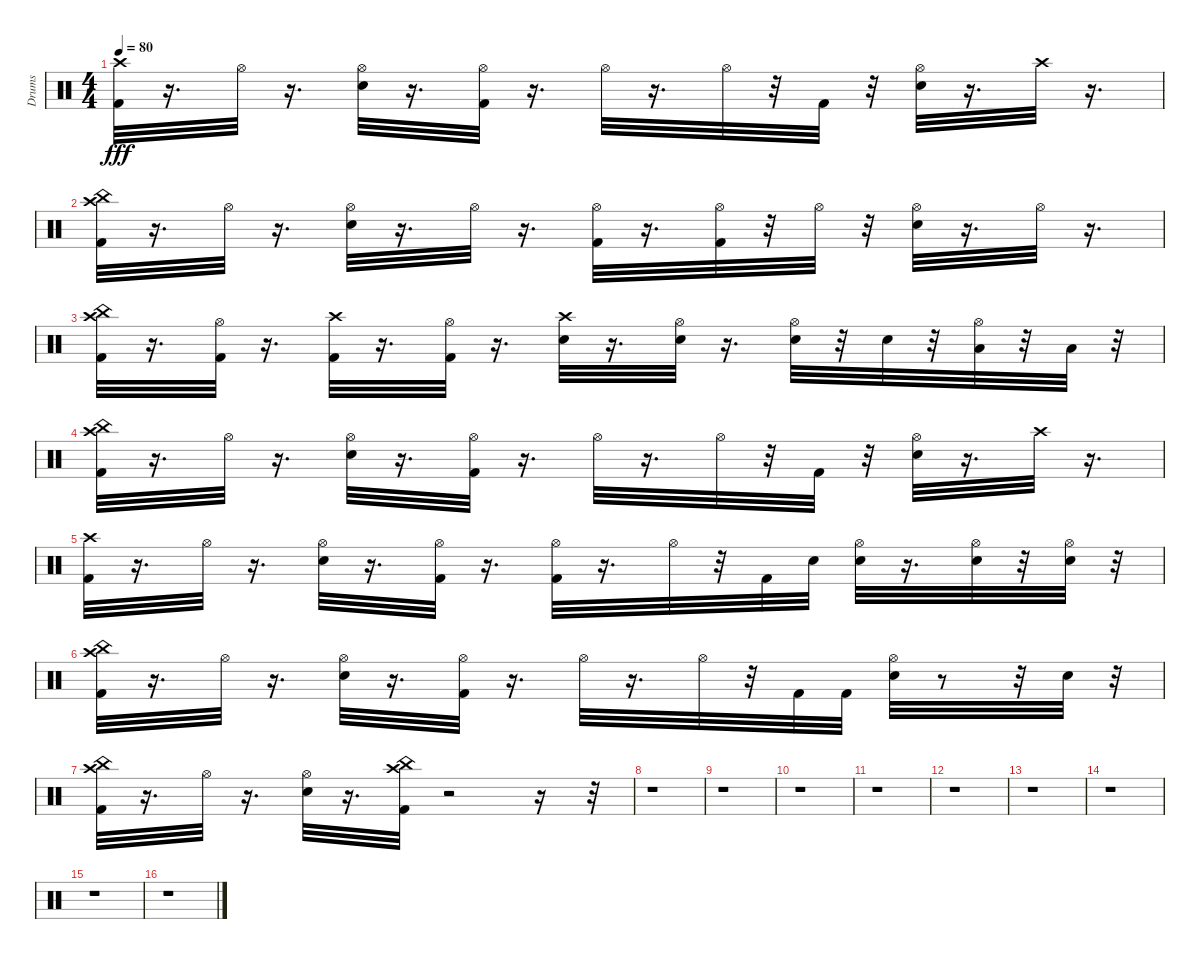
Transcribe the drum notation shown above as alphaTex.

\track ("Drums" "Drums") {instrument percussion}
\staff {score}
\articulation defaults
\ts (4 4)
\tempo 80
\clef neutral
\ks c
("Crash high (hit)" "Kick (hit) 2").32{dy fff} r.16{d} "Hi-Hat (open)".32 r.16{d} ("Hi-Hat (open)" "Snare (hit) 2").32 r.16{d} ("Hi-Hat (open)" "Kick (hit) 2").32 r.16{d} "Hi-Hat (open)".32 r.16{d} "Hi-Hat (open)".32 r.32 "Kick (hit) 2".32 r.32 ("Hi-Hat (open)" "Snare (hit) 2").32 r.16{d} "Crash high (hit)".32 r.16{d} |
("Kick (hit) 2" "China (hit)" "Crash high (hit)").32 r.16{d} "Hi-Hat (open)".32 r.16{d} ("Hi-Hat (open)" "Snare (hit) 2").32 r.16{d} "Hi-Hat (open)".32 r.16{d} ("Hi-Hat (open)" "Kick (hit) 2").32 r.16{d} ("Hi-Hat (open)" "Kick (hit) 2").32 r.32 "Hi-Hat (open)".32 r.32 ("Hi-Hat (open)" "Snare (hit) 2").32 r.16{d} "Hi-Hat (open)".32 r.16{d} |
("China (hit)" "Crash high (hit)" "Kick (hit) 2").32 r.16{d} ("Hi-Hat (open)" "Kick (hit) 2").32 r.16{d} ("Crash high (hit)" "Kick (hit) 2").32 r.16{d} ("Hi-Hat (open)" "Kick (hit) 2").32 r.16{d} ("Crash high (hit)" "Snare (hit) 2").32 r.16{d} ("Hi-Hat (open)" "Snare (hit) 2").32 r.16{d} ("Hi-Hat (open)" "Snare (hit) 2").32 r.32 "Snare (hit) 2".32 r.32 ("Hi-Hat (open)" "Low Tom (hit)").32 r.32 "Low Tom (hit)".32 r.32 |
("Kick (hit) 2" "China (hit)" "Crash high (hit)").32 r.16{d} "Hi-Hat (open)".32 r.16{d} ("Hi-Hat (open)" "Snare (hit) 2").32 r.16{d} ("Hi-Hat (open)" "Kick (hit) 2").32 r.16{d} "Hi-Hat (open)".32 r.16{d} "Hi-Hat (open)".32 r.32 "Kick (hit) 2".32 r.32 ("Hi-Hat (open)" "Snare (hit) 2").32 r.16{d} "Crash high (hit)".32 r.16{d} |
("Kick (hit) 2" "Crash high (hit)").32 r.16{d} "Hi-Hat (open)".32 r.16{d} ("Snare (hit) 2" "Hi-Hat (open)").32 r.16{d} ("Kick (hit) 2" "Hi-Hat (open)").32 r.16{d} ("Kick (hit) 2" "Hi-Hat (open)").32 r.16{d} "Hi-Hat (open)".32 r.32 "Kick (hit) 2".32 "Snare (hit) 2".32 ("Snare (hit) 2" "Hi-Hat (open)").32 r.16{d} ("Snare (hit) 2" "Hi-Hat (open)").32 r.32 ("Snare (hit) 2" "Hi-Hat (open)").32 r.32 |
("China (hit)" "Crash high (hit)" "Kick (hit) 2").32 r.16{d} "Hi-Hat (open)".32 r.16{d} ("Hi-Hat (open)" "Snare (hit) 2").32 r.16{d} ("Hi-Hat (open)" "Kick (hit) 2").32 r.16{d} "Hi-Hat (open)".32 r.16{d} "Hi-Hat (open)".32 r.32 "Kick (hit) 2".32 "Kick (hit) 2".32 ("Hi-Hat (open)" "Snare (hit) 2").32 r.8 r.32 "Snare (hit) 2".32 r.32 |
("China (hit)" "Crash high (hit)" "Kick (hit) 2").32 r.16{d} "Hi-Hat (open)".32 r.16{d} ("Hi-Hat (open)" "Snare (hit) 2").32 r.16{d} ("China (hit)" "Crash high (hit)" "Kick (hit) 2").32 r.2 r.16 r.32 |
r.1 |
r.1 |
r.1 |
r.1 |
r.1 |
r.1 |
r.1 |
r.1 |
r.1
